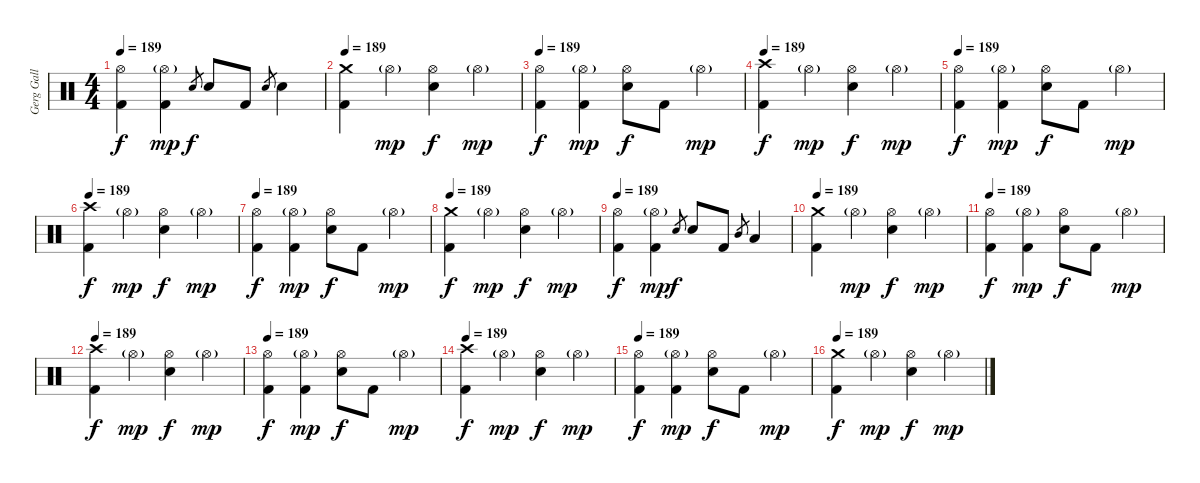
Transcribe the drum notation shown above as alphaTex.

\track ("Gerg Gall (Drums)" "Gerg Gall ") {instrument percussion}
\staff {score}
\articulation defaults
\ts (4 4)
\tempo 189
\clef neutral
\ks c
("Hi-Hat (open)" "Kick (hit) 2").4{dy f} ("Hi-Hat (open)"{g} "Kick (hit) 2").4{dy mp} "Snare (hit) 2".8{gr dy f} "Electric Snare (hit)".8 "Kick (hit) 2".8 "Snare (hit) 2".8{gr} "Snare (hit) 2".4 |
\tempo 189
("Crash medium (hit)" "Kick (hit) 2").4 "Hi-Hat (open)"{g}.4{dy mp} ("Hi-Hat (open)" "Snare (hit) 2").4{dy f} "Hi-Hat (open)"{g}.4{dy mp} |
\tempo 189
("Hi-Hat (open)" "Kick (hit) 2").4{dy f} ("Hi-Hat (open)"{g} "Kick (hit) 2").4{dy mp} ("Hi-Hat (open)" "Snare (hit) 2").8{dy f} "Kick (hit) 2".8 "Hi-Hat (open)"{g}.4{dy mp} |
\tempo 189
("Crash high (hit)" "Kick (hit) 2").4{dy f} "Hi-Hat (open)"{g}.4{dy mp} ("Hi-Hat (open)" "Snare (hit) 2").4{dy f} "Hi-Hat (open)"{g}.4{dy mp} |
\tempo 189
("Hi-Hat (open)" "Kick (hit) 2").4{dy f} ("Hi-Hat (open)"{g} "Kick (hit) 2").4{dy mp} ("Hi-Hat (open)" "Snare (hit) 2").8{dy f} "Kick (hit) 2".8 "Hi-Hat (open)"{g}.4{dy mp} |
\tempo 189
("Crash high (hit)" "Kick (hit) 2").4{dy f} "Hi-Hat (open)"{g}.4{dy mp} ("Hi-Hat (open)" "Snare (hit) 2").4{dy f} "Hi-Hat (open)"{g}.4{dy mp} |
\tempo 189
("Hi-Hat (open)" "Kick (hit) 2").4{dy f} ("Hi-Hat (open)"{g} "Kick (hit) 2").4{dy mp} ("Hi-Hat (open)" "Snare (hit) 2").8{dy f} "Kick (hit) 2".8 "Hi-Hat (open)"{g}.4{dy mp} |
\tempo 189
("Crash medium (hit)" "Kick (hit) 2").4{dy f} "Hi-Hat (open)"{g}.4{dy mp} ("Hi-Hat (open)" "Snare (hit) 2").4{dy f} "Hi-Hat (open)"{g}.4{dy mp} |
\tempo 189
("Hi-Hat (open)" "Kick (hit) 2").4{dy f} ("Hi-Hat (open)"{g} "Kick (hit) 2").4{dy mp} "Snare (hit) 2".8{gr dy f} "Snare (hit) 2".8 "Kick (hit) 2".8 "Mid Tom (hit)".8{gr} "Low Tom (hit)".4 |
\tempo 189
("Crash medium (hit)" "Kick (hit) 2").4 "Hi-Hat (open)"{g}.4{dy mp} ("Hi-Hat (open)" "Snare (hit) 2").4{dy f} "Hi-Hat (open)"{g}.4{dy mp} |
\tempo 189
("Hi-Hat (open)" "Kick (hit) 2").4{dy f} ("Hi-Hat (open)"{g} "Kick (hit) 2").4{dy mp} ("Hi-Hat (open)" "Snare (hit) 2").8{dy f} "Kick (hit) 2".8 "Hi-Hat (open)"{g}.4{dy mp} |
\tempo 189
("Crash high (hit)" "Kick (hit) 2").4{dy f} "Hi-Hat (open)"{g}.4{dy mp} ("Hi-Hat (open)" "Snare (hit) 2").4{dy f} "Hi-Hat (open)"{g}.4{dy mp} |
\tempo 189
("Hi-Hat (open)" "Kick (hit) 2").4{dy f} ("Hi-Hat (open)"{g} "Kick (hit) 2").4{dy mp} ("Hi-Hat (open)" "Snare (hit) 2").8{dy f} "Kick (hit) 2".8 "Hi-Hat (open)"{g}.4{dy mp} |
\tempo 189
("Crash high (hit)" "Kick (hit) 2").4{dy f} "Hi-Hat (open)"{g}.4{dy mp} ("Hi-Hat (open)" "Snare (hit) 2").4{dy f} "Hi-Hat (open)"{g}.4{dy mp} |
\tempo 189
("Hi-Hat (open)" "Kick (hit) 2").4{dy f} ("Hi-Hat (open)"{g} "Kick (hit) 2").4{dy mp} ("Hi-Hat (open)" "Snare (hit) 2").8{dy f} "Kick (hit) 2".8 "Hi-Hat (open)"{g}.4{dy mp} |
\tempo 189
("Crash medium (hit)" "Kick (hit) 2").4{dy f} "Hi-Hat (open)"{g}.4{dy mp} ("Hi-Hat (open)" "Snare (hit) 2").4{dy f} "Hi-Hat (open)"{g}.4{dy mp}
